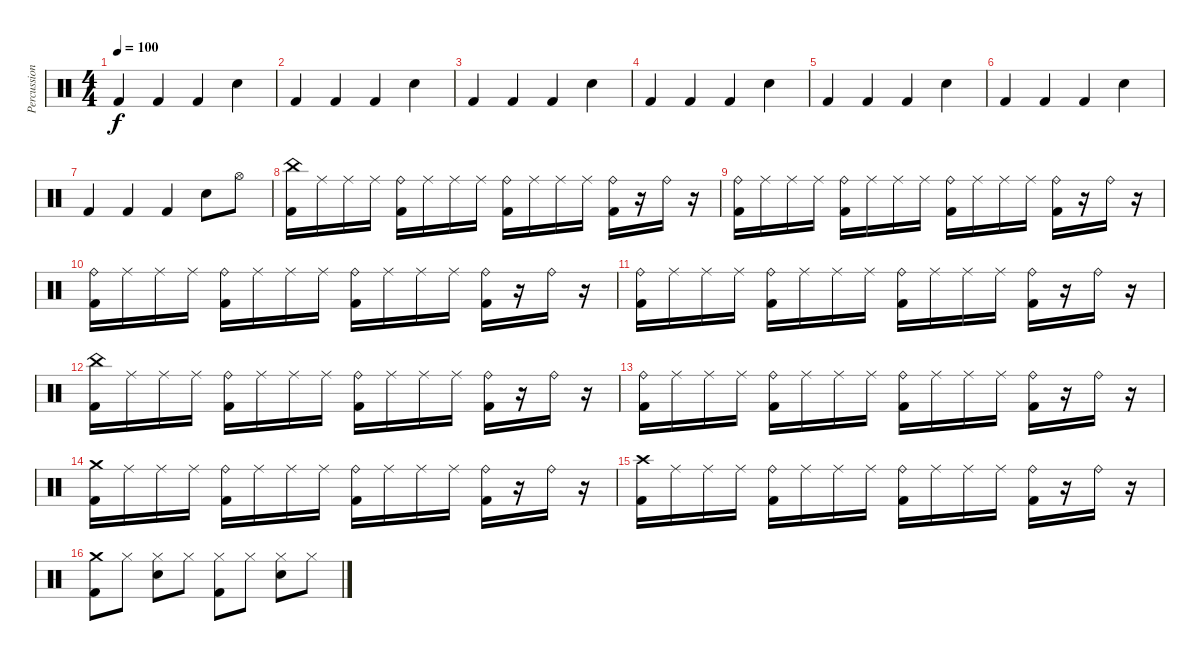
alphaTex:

\track ("Percussions" "Percussion") {instrument percussion}
\staff {score}
\articulation defaults
\ts (4 4)
\tempo 100
\clef neutral
\ks c "Kick (hit) 2".4{dy f} "Kick (hit) 2".4 "Kick (hit) 2".4 "Electric Snare (hit)".4
|
"Kick (hit) 2".4 "Kick (hit) 2".4 "Kick (hit) 2".4 "Electric Snare (hit)".4 |
"Kick (hit) 2".4 "Kick (hit) 2".4 "Kick (hit) 2".4 "Electric Snare (hit)".4 |
"Kick (hit) 2".4 "Kick (hit) 2".4 "Kick (hit) 2".4 "Electric Snare (hit)".4 |
"Kick (hit) 2".4 "Kick (hit) 2".4 "Kick (hit) 2".4 "Electric Snare (hit)".4 |
"Kick (hit) 2".4 "Kick (hit) 2".4 "Kick (hit) 2".4 "Electric Snare (hit)".4 |
"Kick (hit) 2".4 "Kick (hit) 2".4 "Kick (hit) 2".4 "Electric Snare (hit)".8 "Hi-Hat (open)".8 |
("China (hit)" "Kick (hit) 2").16 "Ride (middle)".16 "Ride (middle)".16 "Ride (middle)".16 ("Ride (bell)" "Kick (hit) 2").16 "Ride (middle)".16 "Ride (middle)".16 "Ride (middle)".16 ("Ride (bell)" "Kick (hit) 2").16 "Ride (middle)".16 "Ride (middle)".16 "Ride (middle)".16 ("Ride (bell)" "Kick (hit) 2").16 r.16 "Ride (bell)".16 r.16 |
("Ride (bell)" "Kick (hit) 2").16 "Ride (middle)".16 "Ride (middle)".16 "Ride (middle)".16 ("Ride (bell)" "Kick (hit) 2").16 "Ride (middle)".16 "Ride (middle)".16 "Ride (middle)".16 ("Ride (bell)" "Kick (hit) 2").16 "Ride (middle)".16 "Ride (middle)".16 "Ride (middle)".16 ("Ride (bell)" "Kick (hit) 2").16 r.16 "Ride (bell)".16 r.16 |
("Ride (bell)" "Kick (hit) 2").16 "Ride (middle)".16 "Ride (middle)".16 "Ride (middle)".16 ("Ride (bell)" "Kick (hit) 2").16 "Ride (middle)".16 "Ride (middle)".16 "Ride (middle)".16 ("Ride (bell)" "Kick (hit) 2").16 "Ride (middle)".16 "Ride (middle)".16 "Ride (middle)".16 ("Ride (bell)" "Kick (hit) 2").16 r.16 "Ride (bell)".16 r.16 |
("Ride (bell)" "Kick (hit) 2").16 "Ride (middle)".16 "Ride (middle)".16 "Ride (middle)".16 ("Ride (bell)" "Kick (hit) 2").16 "Ride (middle)".16 "Ride (middle)".16 "Ride (middle)".16 ("Ride (bell)" "Kick (hit) 2").16 "Ride (middle)".16 "Ride (middle)".16 "Ride (middle)".16 ("Ride (bell)" "Kick (hit) 2").16 r.16 "Ride (bell)".16 r.16 |
("China (hit)" "Kick (hit) 2").16 "Ride (middle)".16 "Ride (middle)".16 "Ride (middle)".16 ("Ride (bell)" "Kick (hit) 2").16 "Ride (middle)".16 "Ride (middle)".16 "Ride (middle)".16 ("Ride (bell)" "Kick (hit) 2").16 "Ride (middle)".16 "Ride (middle)".16 "Ride (middle)".16 ("Ride (bell)" "Kick (hit) 2").16 r.16 "Ride (bell)".16 r.16 |
("Ride (bell)" "Kick (hit) 2").16 "Ride (middle)".16 "Ride (middle)".16 "Ride (middle)".16 ("Ride (bell)" "Kick (hit) 2").16 "Ride (middle)".16 "Ride (middle)".16 "Ride (middle)".16 ("Ride (bell)" "Kick (hit) 2").16 "Ride (middle)".16 "Ride (middle)".16 "Ride (middle)".16 ("Ride (bell)" "Kick (hit) 2").16 r.16 "Ride (bell)".16 r.16 |
("Crash medium (hit)" "Kick (hit) 2").16 "Ride (middle)".16 "Ride (middle)".16 "Ride (middle)".16 ("Ride (bell)" "Kick (hit) 2").16 "Ride (middle)".16 "Ride (middle)".16 "Ride (middle)".16 ("Ride (bell)" "Kick (hit) 2").16 "Ride (middle)".16 "Ride (middle)".16 "Ride (middle)".16 ("Ride (bell)" "Kick (hit) 2").16 r.16 "Ride (bell)".16 r.16 |
("Crash high (hit)" "Kick (hit) 2").16 "Ride (middle)".16 "Ride (middle)".16 "Ride (middle)".16 ("Ride (bell)" "Kick (hit) 2").16 "Ride (middle)".16 "Ride (middle)".16 "Ride (middle)".16 ("Ride (bell)" "Kick (hit) 2").16 "Ride (middle)".16 "Ride (middle)".16 "Ride (middle)".16 ("Ride (bell)" "Kick (hit) 2").16 r.16 "Ride (bell)".16 r.16 |
("Crash medium (hit)" "Kick (hit) 2").8 "Hi-Hat (closed)".8 ("Hi-Hat (closed)" "Electric Snare (hit)").8 "Hi-Hat (closed)".8 ("Hi-Hat (closed)" "Kick (hit) 2").8 "Hi-Hat (closed)".8 ("Hi-Hat (closed)" "Electric Snare (hit)").8 "Hi-Hat (closed)".8
